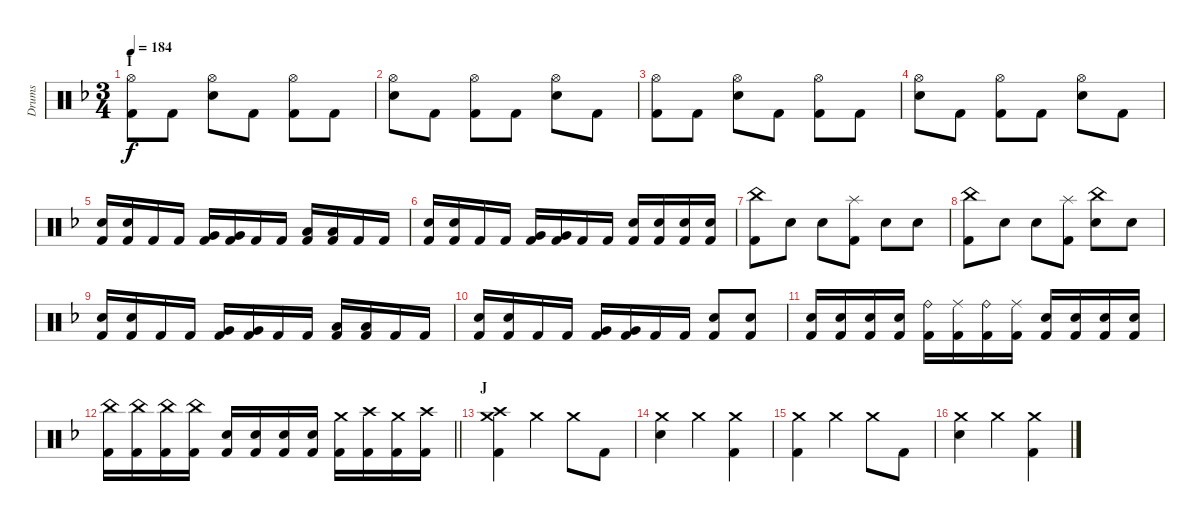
\track ("Drums" "Drums") {instrument percussion}
\staff {score}
\articulation defaults
\ts (3 4)
\section ("" "I")
\tempo 184
\clef neutral
\ks f
("Hi-Hat (open)" "Kick (hit) 2").8{dy f} "Kick (hit) 2".8 ("Hi-Hat (open)" "Electric Snare (hit)").8 "Kick (hit) 2".8 ("Hi-Hat (open)" "Kick (hit) 2").8 "Kick (hit) 2".8 |
("Hi-Hat (open)" "Electric Snare (hit)").8 "Kick (hit) 2".8 ("Hi-Hat (open)" "Kick (hit) 2").8 "Kick (hit) 2".8 ("Hi-Hat (open)" "Electric Snare (hit)").8 "Kick (hit) 2".8 |
("Hi-Hat (open)" "Kick (hit) 2").8 "Kick (hit) 2".8 ("Hi-Hat (open)" "Electric Snare (hit)").8 "Kick (hit) 2".8 ("Hi-Hat (open)" "Kick (hit) 2").8 "Kick (hit) 2".8 |
("Hi-Hat (open)" "Electric Snare (hit)").8 "Kick (hit) 2".8 ("Hi-Hat (open)" "Kick (hit) 2").8 "Kick (hit) 2".8 ("Hi-Hat (open)" "Electric Snare (hit)").8 "Kick (hit) 2".8 |
("Electric Snare (hit)" "Kick (hit) 2").16 ("Electric Snare (hit)" "Kick (hit) 2").16 "Kick (hit) 2".16 "Kick (hit) 2".16 ("Very Low Tom (hit)" "Kick (hit) 2").16 ("Very Low Tom (hit)" "Kick (hit) 2").16 "Kick (hit) 2".16 "Kick (hit) 2".16 ("Low Floor Tom (hit)" "Kick (hit) 2").16 ("Low Floor Tom (hit)" "Kick (hit) 2").16 "Kick (hit) 2".16 "Kick (hit) 2".16 |
("Electric Snare (hit)" "Kick (hit) 2").16 ("Electric Snare (hit)" "Kick (hit) 2").16 "Kick (hit) 2".16 "Kick (hit) 2".16 ("Very Low Tom (hit)" "Kick (hit) 2").16 ("Very Low Tom (hit)" "Kick (hit) 2").16 "Kick (hit) 2".16 "Kick (hit) 2".16 ("Electric Snare (hit)" "Kick (hit) 2").16 ("Electric Snare (hit)" "Kick (hit) 2").16 ("Electric Snare (hit)" "Kick (hit) 2").16 ("Electric Snare (hit)" "Kick (hit) 2").16 |
("China (hit)" "Kick (hit) 2").8 "Electric Snare (hit)".8 "Electric Snare (hit)".8 ("Splash (hit)" "Kick (hit) 2").8 "Electric Snare (hit)".8 "Electric Snare (hit)".8 |
("China (hit)" "Kick (hit) 2").8 "Electric Snare (hit)".8 "Electric Snare (hit)".8 ("Splash (hit)" "Kick (hit) 2").8 ("China (hit)" "Electric Snare (hit)").8 "Electric Snare (hit)".8 |
("Electric Snare (hit)" "Kick (hit) 2").16 ("Electric Snare (hit)" "Kick (hit) 2").16 "Kick (hit) 2".16 "Kick (hit) 2".16 ("Very Low Tom (hit)" "Kick (hit) 2").16 ("Very Low Tom (hit)" "Kick (hit) 2").16 "Kick (hit) 2".16 "Kick (hit) 2".16 ("Low Floor Tom (hit)" "Kick (hit) 2").16 ("Low Floor Tom (hit)" "Kick (hit) 2").16 "Kick (hit) 2".16 "Kick (hit) 2".16 |
("Electric Snare (hit)" "Kick (hit) 2").16 ("Electric Snare (hit)" "Kick (hit) 2").16 "Kick (hit) 2".16 "Kick (hit) 2".16 ("Very Low Tom (hit)" "Kick (hit) 2").16 ("Very Low Tom (hit)" "Kick (hit) 2").16 "Kick (hit) 2".16 "Kick (hit) 2".16 ("Electric Snare (hit)" "Kick (hit) 2").8 ("Electric Snare (hit)" "Kick (hit) 2").8 |
("Electric Snare (hit)" "Kick (hit) 2").16 ("Electric Snare (hit)" "Kick (hit) 2").16 ("Electric Snare (hit)" "Kick (hit) 2").16 ("Electric Snare (hit)" "Kick (hit) 2").16 ("Ride (bell)" "Kick (hit) 2").16 ("Ride (middle)" "Kick (hit) 2").16 ("Ride (bell)" "Kick (hit) 2").16 ("Ride (middle)" "Kick (hit) 2").16 ("Electric Snare (hit)" "Kick (hit) 2").16 ("Electric Snare (hit)" "Kick (hit) 2").16 ("Electric Snare (hit)" "Kick (hit) 2").16 ("Electric Snare (hit)" "Kick (hit) 2").16 |
\barLineRight lightlight
("China (hit)" "Kick (hit) 2").16 ("China (hit)" "Kick (hit) 2").16 ("China (hit)" "Kick (hit) 2").16 ("China (hit)" "Kick (hit) 2").16 ("Electric Snare (hit)" "Kick (hit) 2").16 ("Electric Snare (hit)" "Kick (hit) 2").16 ("Electric Snare (hit)" "Kick (hit) 2").16 ("Electric Snare (hit)" "Kick (hit) 2").16 ("Crash medium (hit)" "Kick (hit) 2").16 ("Crash high (hit)" "Kick (hit) 2").16 ("Crash medium (hit)" "Kick (hit) 2").16 ("Crash high (hit)" "Kick (hit) 2").16 |
\section ("" "J")
("Crash medium (hit)" "Crash high (hit)" "Kick (hit) 2").4 "Crash medium (hit)".4 "Crash medium (hit)".8 "Kick (hit) 2".8 |
("Crash medium (hit)" "Electric Snare (hit)").4 "Crash medium (hit)".4 ("Crash medium (hit)" "Kick (hit) 2").4 |
("Crash medium (hit)" "Kick (hit) 2").4 "Crash medium (hit)".4 "Crash medium (hit)".8 "Kick (hit) 2".8 |
("Crash medium (hit)" "Electric Snare (hit)").4 "Crash medium (hit)".4 ("Crash medium (hit)" "Kick (hit) 2").4
